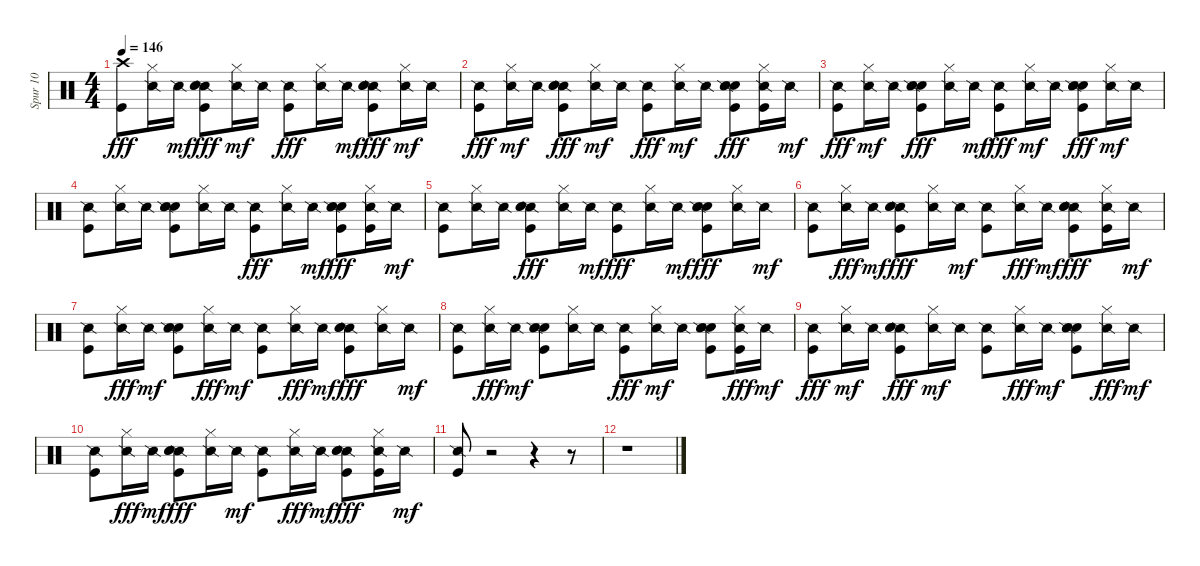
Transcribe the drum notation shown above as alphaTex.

\track ("Spur 10" "Spur 10") {instrument percussion}
\staff {score}
\articulation defaults
\ts (4 4)
\tempo 146
\clef neutral
\ks c
("Crash high (hit)" "Kick (hit)").8{dy fff} ("Snare (side stick) 2" "Hi-Hat (closed)").16 "Snare (side stick) 2".16{dy mf} ("Snare (side stick) 2" "Kick (hit)" "Electric Snare (hit)" "Hand Clap (hit)").8{dy fff} ("Hi-Hat (closed)" "Snare (side stick) 2").16{dy mf} "Snare (side stick) 2".16 ("Snare (side stick) 2" "Kick (hit)").8{dy fff} ("Snare (side stick) 2" "Hi-Hat (closed)").16 "Snare (side stick) 2".16{dy mf} ("Kick (hit)" "Snare (side stick) 2" "Hand Clap (hit)" "Electric Snare (hit)").8{dy fff} ("Hi-Hat (closed)" "Snare (side stick) 2").16{dy mf} "Snare (side stick) 2".16 |
("Snare (side stick) 2" "Kick (hit)").8{dy fff} ("Hi-Hat (closed)" "Snare (side stick) 2").16{dy mf} "Snare (side stick) 2".16 ("Snare (side stick) 2" "Kick (hit)" "Hand Clap (hit)" "Electric Snare (hit)").8{dy fff} ("Hi-Hat (closed)" "Snare (side stick) 2").16{dy mf} "Snare (side stick) 2".16 ("Snare (side stick) 2" "Kick (hit)").8{dy fff} ("Hi-Hat (closed)" "Snare (side stick) 2").16{dy mf} "Snare (side stick) 2".16 ("Hand Clap (hit)" "Electric Snare (hit)" "Snare (side stick) 2" "Kick (hit)").8{dy fff} ("Hi-Hat (closed)" "Snare (side stick) 2" "Kick (hit)").16 "Snare (side stick) 2".16{dy mf} |
("Snare (side stick) 2" "Kick (hit)").8{dy fff} ("Hi-Hat (closed)" "Snare (side stick) 2").16{dy mf} "Snare (side stick) 2".16 ("Hand Clap (hit)" "Snare (side stick) 2" "Kick (hit)" "Electric Snare (hit)").8{dy fff} ("Snare (side stick) 2" "Hi-Hat (closed)").16 "Snare (side stick) 2".16{dy mf} ("Snare (side stick) 2" "Kick (hit)").8{dy fff} ("Hi-Hat (closed)" "Snare (side stick) 2").16{dy mf} "Snare (side stick) 2".16 ("Hand Clap (hit)" "Snare (side stick) 2" "Electric Snare (hit)" "Kick (hit)").8{dy fff} ("Hi-Hat (closed)" "Snare (side stick) 2").16{dy mf} "Snare (side stick) 2".16 |
("Kick (hit)" "Snare (side stick) 2").8 ("Hi-Hat (closed)" "Snare (side stick) 2").16 "Snare (side stick) 2".16 ("Kick (hit)" "Electric Snare (hit)" "Hand Clap (hit)" "Snare (side stick) 2").8 ("Hi-Hat (closed)" "Snare (side stick) 2").16 "Snare (side stick) 2".16 ("Snare (side stick) 2" "Kick (hit)").8{dy fff} ("Snare (side stick) 2" "Hi-Hat (closed)").16 "Snare (side stick) 2".16{dy mf} ("Electric Snare (hit)" "Snare (side stick) 2" "Kick (hit)" "Hand Clap (hit)").8{dy fff} ("Kick (hit)" "Snare (side stick) 2" "Hi-Hat (closed)").16 "Snare (side stick) 2".16{dy mf} |
("Kick (hit)" "Snare (side stick) 2").8 ("Hi-Hat (closed)" "Snare (side stick) 2").16 "Snare (side stick) 2".16 ("Snare (side stick) 2" "Hand Clap (hit)" "Electric Snare (hit)" "Kick (hit)").8{dy fff} ("Snare (side stick) 2" "Hi-Hat (closed)").16 "Snare (side stick) 2".16{dy mf} ("Snare (side stick) 2" "Kick (hit)").8{dy fff} ("Snare (side stick) 2" "Hi-Hat (closed)").16 "Snare (side stick) 2".16{dy mf} ("Kick (hit)" "Electric Snare (hit)" "Snare (side stick) 2" "Hand Clap (hit)").8{dy fff} ("Snare (side stick) 2" "Hi-Hat (closed)").16 "Snare (side stick) 2".16{dy mf} |
("Kick (hit)" "Snare (side stick) 2").8 ("Snare (side stick) 2" "Hi-Hat (closed)").16{dy fff} "Snare (side stick) 2".16{dy mf} ("Snare (side stick) 2" "Hand Clap (hit)" "Kick (hit)" "Electric Snare (hit)").8{dy fff} ("Snare (side stick) 2" "Hi-Hat (closed)").16 "Snare (side stick) 2".16{dy mf} ("Kick (hit)" "Snare (side stick) 2").8 ("Snare (side stick) 2" "Hi-Hat (closed)").16{dy fff} "Snare (side stick) 2".16{dy mf} ("Kick (hit)" "Snare (side stick) 2" "Hand Clap (hit)" "Electric Snare (hit)").8{dy fff} ("Snare (side stick) 2" "Kick (hit)" "Hi-Hat (closed)").16 "Snare (side stick) 2".16{dy mf} |
("Kick (hit)" "Snare (side stick) 2").8 ("Snare (side stick) 2" "Hi-Hat (closed)").16{dy fff} "Snare (side stick) 2".16{dy mf} ("Electric Snare (hit)" "Kick (hit)" "Hand Clap (hit)" "Snare (side stick) 2").8 ("Snare (side stick) 2" "Hi-Hat (closed)").16{dy fff} "Snare (side stick) 2".16{dy mf} ("Kick (hit)" "Snare (side stick) 2").8 ("Snare (side stick) 2" "Hi-Hat (closed)").16{dy fff} "Snare (side stick) 2".16{dy mf} ("Kick (hit)" "Snare (side stick) 2" "Electric Snare (hit)" "Hand Clap (hit)").8{dy fff} ("Snare (side stick) 2" "Hi-Hat (closed)").16 "Snare (side stick) 2".16{dy mf} |
("Kick (hit)" "Snare (side stick) 2").8 ("Snare (side stick) 2" "Hi-Hat (closed)").16{dy fff} "Snare (side stick) 2".16{dy mf} ("Hand Clap (hit)" "Kick (hit)" "Snare (side stick) 2" "Electric Snare (hit)").8 ("Hi-Hat (closed)" "Snare (side stick) 2").16 "Snare (side stick) 2".16 ("Snare (side stick) 2" "Kick (hit)").8{dy fff} ("Hi-Hat (closed)" "Snare (side stick) 2").16{dy mf} "Snare (side stick) 2".16 ("Kick (hit)" "Hand Clap (hit)" "Snare (side stick) 2" "Electric Snare (hit)").8 ("Snare (side stick) 2" "Kick (hit)" "Hi-Hat (closed)").16{dy fff} "Snare (side stick) 2".16{dy mf} |
("Snare (side stick) 2" "Kick (hit)").8{dy fff} ("Hi-Hat (closed)" "Snare (side stick) 2").16{dy mf} "Snare (side stick) 2".16 ("Snare (side stick) 2" "Kick (hit)" "Electric Snare (hit)" "Hand Clap (hit)").8{dy fff} ("Hi-Hat (closed)" "Snare (side stick) 2").16{dy mf} "Snare (side stick) 2".16 ("Kick (hit)" "Snare (side stick) 2").8 ("Snare (side stick) 2" "Hi-Hat (closed)").16{dy fff} "Snare (side stick) 2".16{dy mf} ("Kick (hit)" "Hand Clap (hit)" "Electric Snare (hit)" "Snare (side stick) 2").8 ("Snare (side stick) 2" "Hi-Hat (closed)").16{dy fff} "Snare (side stick) 2".16{dy mf} |
("Kick (hit)" "Snare (side stick) 2").8 ("Snare (side stick) 2" "Hi-Hat (closed)").16{dy fff} "Snare (side stick) 2".16{dy mf} ("Snare (side stick) 2" "Hand Clap (hit)" "Electric Snare (hit)" "Kick (hit)").8{dy fff} ("Snare (side stick) 2" "Hi-Hat (closed)").16 "Snare (side stick) 2".16{dy mf} ("Kick (hit)" "Snare (side stick) 2").8 ("Snare (side stick) 2" "Hi-Hat (closed)").16{dy fff} "Snare (side stick) 2".16{dy mf} ("Kick (hit)" "Snare (side stick) 2" "Hand Clap (hit)" "Electric Snare (hit)").8{dy fff} ("Snare (side stick) 2" "Hi-Hat (closed)" "Kick (hit)").16 "Snare (side stick) 2".16{dy mf} |
("Kick (hit)" "Snare (side stick) 2").8 r.2 r.4 r.8 |
r.1
